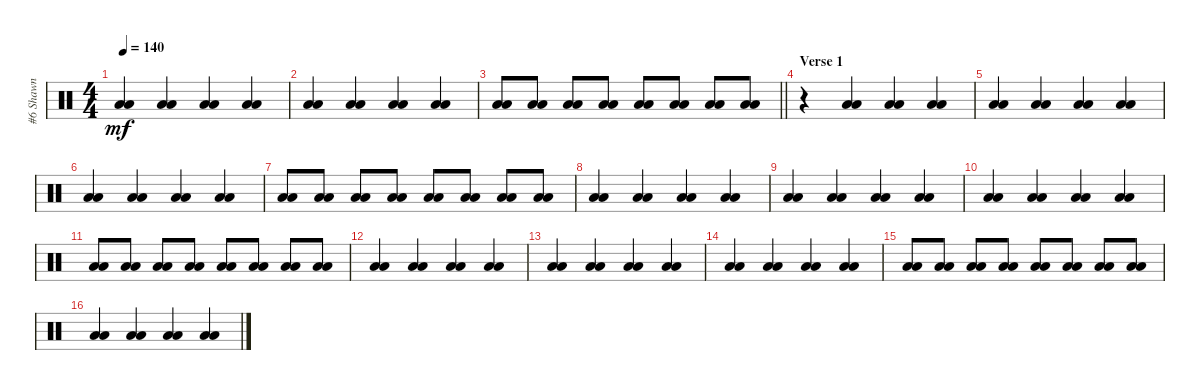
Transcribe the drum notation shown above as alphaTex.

\track ("#6 Shawn" "#6 Shawn") {solo instrument percussion}
\staff {score}
\articulation defaults
\ts (4 4)
\tempo 140
\clef neutral
\ks c
("Low Floor Tom (hit)" "Low Floor Tom (hit)").4{dy mf} ("Low Tom (hit)" "Low Tom (hit)").4 ("Low Floor Tom (hit)" "Low Floor Tom (hit)").4 ("Low Tom (hit)" "Low Tom (hit)").4 |
("Low Floor Tom (hit)" "Low Floor Tom (hit)").4 ("Low Tom (hit)" "Low Tom (hit)").4 ("Low Floor Tom (hit)" "Low Floor Tom (hit)").4 ("Low Tom (hit)" "Low Tom (hit)").4 |
\barLineRight lightlight
("Low Tom (hit)" "Low Floor Tom (hit)").8 ("Low Tom (hit)" "Low Floor Tom (hit)").8 ("Low Tom (hit)" "Low Floor Tom (hit)").8 ("Low Tom (hit)" "Low Floor Tom (hit)").8 ("Low Tom (hit)" "Low Floor Tom (hit)").8 ("Low Tom (hit)" "Low Floor Tom (hit)").8 ("Low Tom (hit)" "Low Floor Tom (hit)").8 ("Low Tom (hit)" "Low Floor Tom (hit)").8 |
\section ("" "Verse 1")
r.4 ("Low Tom (hit)" "Low Tom (hit)").4 ("Low Floor Tom (hit)" "Low Floor Tom (hit)").4 ("Low Tom (hit)" "Low Tom (hit)").4 |
("Low Floor Tom (hit)" "Low Floor Tom (hit)").4 ("Low Tom (hit)" "Low Tom (hit)").4 ("Low Floor Tom (hit)" "Low Floor Tom (hit)").4 ("Low Tom (hit)" "Low Tom (hit)").4 |
("Low Floor Tom (hit)" "Low Floor Tom (hit)").4 ("Low Tom (hit)" "Low Tom (hit)").4 ("Low Floor Tom (hit)" "Low Floor Tom (hit)").4 ("Low Tom (hit)" "Low Tom (hit)").4 |
("Low Tom (hit)" "Low Floor Tom (hit)").8 ("Low Tom (hit)" "Low Floor Tom (hit)").8 ("Low Tom (hit)" "Low Floor Tom (hit)").8 ("Low Tom (hit)" "Low Floor Tom (hit)").8 ("Low Tom (hit)" "Low Floor Tom (hit)").8 ("Low Tom (hit)" "Low Floor Tom (hit)").8 ("Low Tom (hit)" "Low Floor Tom (hit)").8 ("Low Tom (hit)" "Low Floor Tom (hit)").8 |
("Low Floor Tom (hit)" "Low Floor Tom (hit)").4 ("Low Tom (hit)" "Low Tom (hit)").4 ("Low Floor Tom (hit)" "Low Floor Tom (hit)").4 ("Low Tom (hit)" "Low Tom (hit)").4 |
("Low Floor Tom (hit)" "Low Floor Tom (hit)").4 ("Low Tom (hit)" "Low Tom (hit)").4 ("Low Floor Tom (hit)" "Low Floor Tom (hit)").4 ("Low Tom (hit)" "Low Tom (hit)").4 |
("Low Floor Tom (hit)" "Low Floor Tom (hit)").4 ("Low Tom (hit)" "Low Tom (hit)").4 ("Low Floor Tom (hit)" "Low Floor Tom (hit)").4 ("Low Tom (hit)" "Low Tom (hit)").4 |
("Low Tom (hit)" "Low Floor Tom (hit)").8 ("Low Tom (hit)" "Low Floor Tom (hit)").8 ("Low Tom (hit)" "Low Floor Tom (hit)").8 ("Low Tom (hit)" "Low Floor Tom (hit)").8 ("Low Tom (hit)" "Low Floor Tom (hit)").8 ("Low Tom (hit)" "Low Floor Tom (hit)").8 ("Low Tom (hit)" "Low Floor Tom (hit)").8 ("Low Tom (hit)" "Low Floor Tom (hit)").8 |
("Low Floor Tom (hit)" "Low Floor Tom (hit)").4 ("Low Tom (hit)" "Low Tom (hit)").4 ("Low Floor Tom (hit)" "Low Floor Tom (hit)").4 ("Low Tom (hit)" "Low Tom (hit)").4 |
("Low Floor Tom (hit)" "Low Floor Tom (hit)").4 ("Low Tom (hit)" "Low Tom (hit)").4 ("Low Floor Tom (hit)" "Low Floor Tom (hit)").4 ("Low Tom (hit)" "Low Tom (hit)").4 |
("Low Floor Tom (hit)" "Low Floor Tom (hit)").4 ("Low Tom (hit)" "Low Tom (hit)").4 ("Low Floor Tom (hit)" "Low Floor Tom (hit)").4 ("Low Tom (hit)" "Low Tom (hit)").4 |
("Low Tom (hit)" "Low Floor Tom (hit)").8 ("Low Tom (hit)" "Low Floor Tom (hit)").8 ("Low Tom (hit)" "Low Floor Tom (hit)").8 ("Low Tom (hit)" "Low Floor Tom (hit)").8 ("Low Tom (hit)" "Low Floor Tom (hit)").8 ("Low Tom (hit)" "Low Floor Tom (hit)").8 ("Low Tom (hit)" "Low Floor Tom (hit)").8 ("Low Tom (hit)" "Low Floor Tom (hit)").8 |
("Low Floor Tom (hit)" "Low Floor Tom (hit)").4 ("Low Tom (hit)" "Low Tom (hit)").4 ("Low Floor Tom (hit)" "Low Floor Tom (hit)").4 ("Low Tom (hit)" "Low Tom (hit)").4
